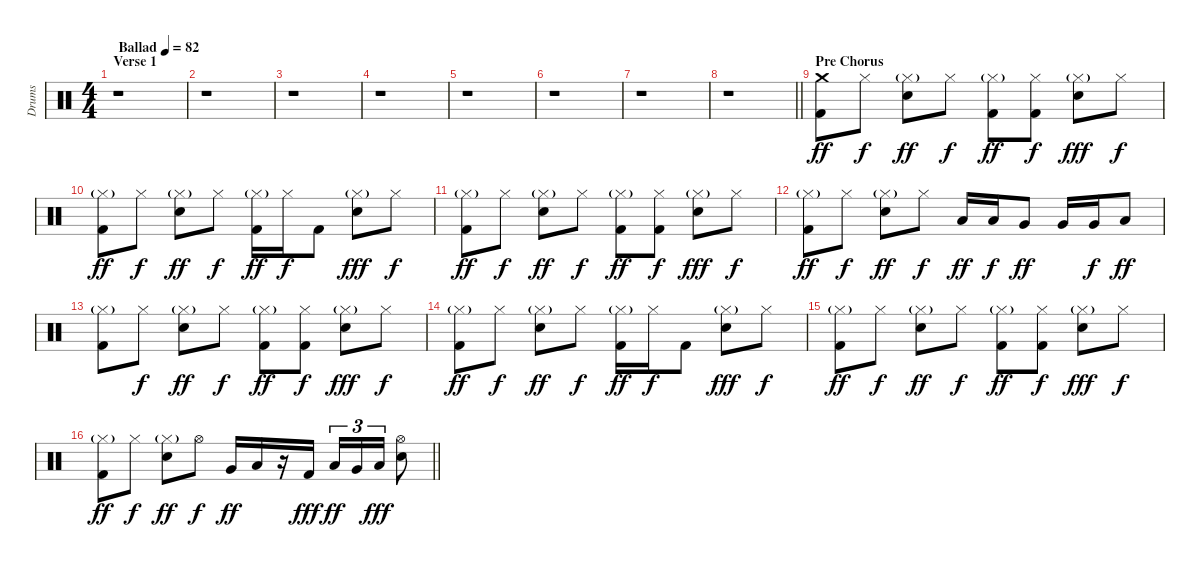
\track ("Drums" "Drums") {instrument percussion}
\staff {score}
\articulation defaults
\ts (4 4)
\section ("" "Verse 1")
\tempo (82 "Ballad")
\clef neutral
\ks c
r.1{dy ff} |
r.1 |
r.1 |
r.1 |
r.1 |
r.1 |
r.1 |
\barLineRight lightlight
r.1 |
\section ("" "Pre Chorus")
("Crash medium (hit)" "Kick (hit) 2").8 "Hi-Hat (closed)".8{dy f} ("Hi-Hat (closed)"{g} "Electric Snare (hit)").8{dy ff} "Hi-Hat (closed)".8{dy f} ("Hi-Hat (closed)"{g} "Kick (hit) 2").8{dy ff} ("Hi-Hat (closed)" "Kick (hit) 2").8{dy f} ("Hi-Hat (closed)"{g} "Electric Snare (hit)").8{dy fff} "Hi-Hat (closed)".8{dy f} |
("Hi-Hat (closed)"{g} "Kick (hit) 2").8{dy ff} "Hi-Hat (closed)".8{dy f} ("Hi-Hat (closed)"{g} "Electric Snare (hit)").8{dy ff} "Hi-Hat (closed)".8{dy f} ("Hi-Hat (closed)"{g} "Kick (hit) 2").16{dy ff} "Hi-Hat (closed)".16{dy f} "Kick (hit) 2".8 ("Hi-Hat (closed)"{g} "Electric Snare (hit)").8{dy fff} "Hi-Hat (closed)".8{dy f} |
("Hi-Hat (closed)"{g} "Kick (hit) 2").8{dy ff} "Hi-Hat (closed)".8{dy f} ("Hi-Hat (closed)"{g} "Electric Snare (hit)").8{dy ff} "Hi-Hat (closed)".8{dy f} ("Hi-Hat (closed)"{g} "Kick (hit) 2").8{dy ff} ("Hi-Hat (closed)" "Kick (hit) 2").8{dy f} ("Hi-Hat (closed)"{g} "Electric Snare (hit)").8{dy fff} "Hi-Hat (closed)".8{dy f} |
("Hi-Hat (closed)"{g} "Kick (hit) 2").8{dy ff} "Hi-Hat (closed)".8{dy f} ("Hi-Hat (closed)"{g} "Electric Snare (hit)").8{dy ff} "Hi-Hat (closed)".8{dy f} "Low Tom (hit)".16{dy ff} "Low Tom (hit)".16{dy f} "Very Low Tom (hit)".8{dy ff} "Very Low Tom (hit)".16 "Very Low Tom (hit)".16{dy f} "Low Floor Tom (hit)".8{dy ff} |
("Hi-Hat (closed)"{g} "Kick (hit) 2").8 "Hi-Hat (closed)".8{dy f} ("Hi-Hat (closed)"{g} "Electric Snare (hit)").8{dy ff} "Hi-Hat (closed)".8{dy f} ("Hi-Hat (closed)"{g} "Kick (hit) 2").8{dy ff} ("Hi-Hat (closed)" "Kick (hit) 2").8{dy f} ("Hi-Hat (closed)"{g} "Electric Snare (hit)").8{dy fff} "Hi-Hat (closed)".8{dy f} |
("Hi-Hat (closed)"{g} "Kick (hit) 2").8{dy ff} "Hi-Hat (closed)".8{dy f} ("Hi-Hat (closed)"{g} "Electric Snare (hit)").8{dy ff} "Hi-Hat (closed)".8{dy f} ("Hi-Hat (closed)"{g} "Kick (hit) 2").16{dy ff} "Hi-Hat (closed)".16{dy f} "Kick (hit) 2".8 ("Hi-Hat (closed)"{g} "Electric Snare (hit)").8{dy fff} "Hi-Hat (closed)".8{dy f} |
("Hi-Hat (closed)"{g} "Kick (hit) 2").8{dy ff} "Hi-Hat (closed)".8{dy f} ("Hi-Hat (closed)"{g} "Electric Snare (hit)").8{dy ff} "Hi-Hat (closed)".8{dy f} ("Hi-Hat (closed)"{g} "Kick (hit) 2").8{dy ff} ("Hi-Hat (closed)" "Kick (hit) 2").8{dy f} ("Hi-Hat (closed)"{g} "Electric Snare (hit)").8{dy fff} "Hi-Hat (closed)".8{dy f} |
\barLineRight lightlight
("Hi-Hat (closed)"{g} "Kick (hit) 2").8{dy ff} "Hi-Hat (closed)".8{dy f} ("Hi-Hat (closed)"{g} "Electric Snare (hit)").8{dy ff} "Hi-Hat (open)".8{dy f} "Very Low Tom (hit)".16{dy ff} "Low Floor Tom (hit)".16 r.16 "Kick (hit) 2".16{dy fff} "Low Tom (hit)".16{tu (3 2) dy ff} "Very Low Tom (hit)".16{tu (3 2)} "Low Floor Tom (hit)".16{tu (3 2) dy fff} ("Hi-Hat (open)" "Electric Snare (hit)").8
